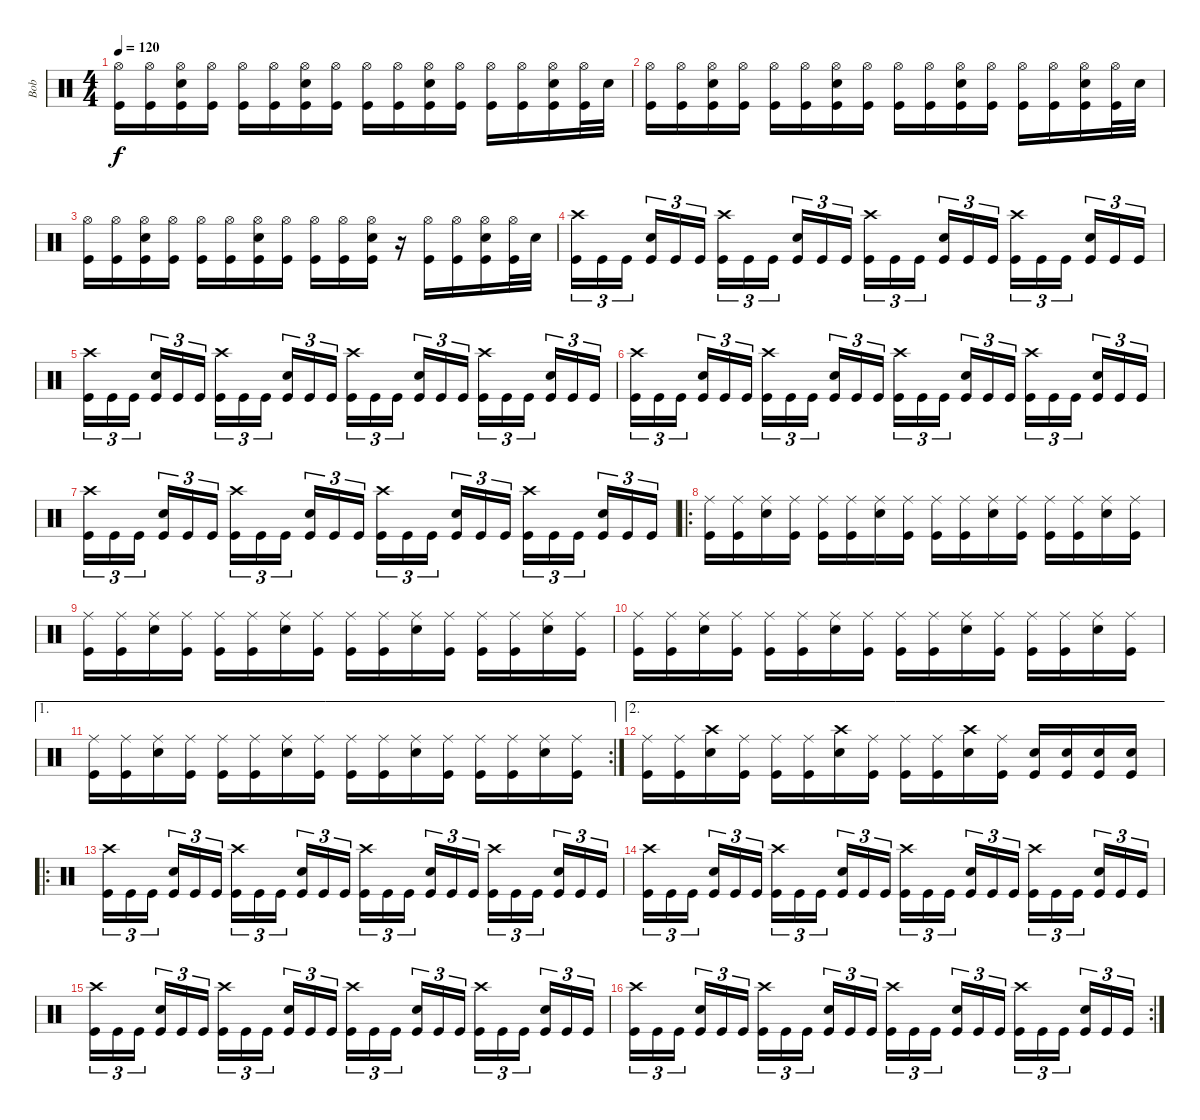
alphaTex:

\track ("Bob" "Bob") {instrument percussion}
\staff {score}
\articulation defaults
\ts (4 4)
\tempo 120
\clef neutral
\ks c
("Hi-Hat (open)" "Kick (hit)").16{dy f} ("Hi-Hat (open)" "Kick (hit)").16 ("Hi-Hat (open)" "Snare (hit) 2" "Kick (hit)").16 ("Hi-Hat (open)" "Kick (hit)").16 ("Hi-Hat (open)" "Kick (hit)").16 ("Hi-Hat (open)" "Kick (hit)").16 ("Hi-Hat (open)" "Snare (hit) 2" "Kick (hit)").16 ("Hi-Hat (open)" "Kick (hit)").16 ("Hi-Hat (open)" "Kick (hit)").16 ("Hi-Hat (open)" "Kick (hit)").16 ("Hi-Hat (open)" "Snare (hit) 2" "Kick (hit)").16 ("Hi-Hat (open)" "Kick (hit)").16 ("Hi-Hat (open)" "Kick (hit)").16 ("Hi-Hat (open)" "Kick (hit)").16 ("Hi-Hat (open)" "Snare (hit) 2" "Kick (hit)").16 ("Hi-Hat (open)" "Kick (hit)").32 "Snare (hit) 2".32 |
("Hi-Hat (open)" "Kick (hit)").16 ("Hi-Hat (open)" "Kick (hit)").16 ("Hi-Hat (open)" "Snare (hit) 2" "Kick (hit)").16 ("Hi-Hat (open)" "Kick (hit)").16 ("Hi-Hat (open)" "Kick (hit)").16 ("Hi-Hat (open)" "Kick (hit)").16 ("Hi-Hat (open)" "Snare (hit) 2" "Kick (hit)").16 ("Hi-Hat (open)" "Kick (hit)").16 ("Hi-Hat (open)" "Kick (hit)").16 ("Hi-Hat (open)" "Kick (hit)").16 ("Hi-Hat (open)" "Snare (hit) 2" "Kick (hit)").16 ("Hi-Hat (open)" "Kick (hit)").16 ("Hi-Hat (open)" "Kick (hit)").16 ("Hi-Hat (open)" "Kick (hit)").16 ("Hi-Hat (open)" "Snare (hit) 2" "Kick (hit)").16 ("Hi-Hat (open)" "Kick (hit)").32 "Snare (hit) 2".32 |
("Hi-Hat (open)" "Kick (hit)").16 ("Hi-Hat (open)" "Kick (hit)").16 ("Hi-Hat (open)" "Snare (hit) 2" "Kick (hit)").16 ("Hi-Hat (open)" "Kick (hit)").16 ("Hi-Hat (open)" "Kick (hit)").16 ("Hi-Hat (open)" "Kick (hit)").16 ("Hi-Hat (open)" "Snare (hit) 2" "Kick (hit)").16 ("Hi-Hat (open)" "Kick (hit)").16 ("Hi-Hat (open)" "Kick (hit)").16 ("Hi-Hat (open)" "Kick (hit)").16 ("Hi-Hat (open)" "Snare (hit) 2" "Kick (hit)").16 r.16 ("Hi-Hat (open)" "Kick (hit)").16 ("Hi-Hat (open)" "Kick (hit)").16 ("Hi-Hat (open)" "Snare (hit) 2" "Kick (hit)").16 ("Hi-Hat (open)" "Kick (hit)").32 "Snare (hit) 2".32 |
("Crash high (hit)" "Kick (hit)").16{tu (3 2)} "Kick (hit)".16{tu (3 2)} "Kick (hit)".16{tu (3 2)} ("Snare (hit) 2" "Kick (hit)").16{tu (3 2)} "Kick (hit)".16{tu (3 2)} "Kick (hit)".16{tu (3 2)} ("Crash high (hit)" "Kick (hit)").16{tu (3 2)} "Kick (hit)".16{tu (3 2)} "Kick (hit)".16{tu (3 2)} ("Snare (hit) 2" "Kick (hit)").16{tu (3 2)} "Kick (hit)".16{tu (3 2)} "Kick (hit)".16{tu (3 2)} ("Crash high (hit)" "Kick (hit)").16{tu (3 2)} "Kick (hit)".16{tu (3 2)} "Kick (hit)".16{tu (3 2)} ("Snare (hit) 2" "Kick (hit)").16{tu (3 2)} "Kick (hit)".16{tu (3 2)} "Kick (hit)".16{tu (3 2)} ("Crash high (hit)" "Kick (hit)").16{tu (3 2)} "Kick (hit)".16{tu (3 2)} "Kick (hit)".16{tu (3 2)} ("Snare (hit) 2" "Kick (hit)").16{tu (3 2)} "Kick (hit)".16{tu (3 2)} "Kick (hit)".16{tu (3 2)} |
("Crash high (hit)" "Kick (hit)").16{tu (3 2)} "Kick (hit)".16{tu (3 2)} "Kick (hit)".16{tu (3 2)} ("Snare (hit) 2" "Kick (hit)").16{tu (3 2)} "Kick (hit)".16{tu (3 2)} "Kick (hit)".16{tu (3 2)} ("Crash high (hit)" "Kick (hit)").16{tu (3 2)} "Kick (hit)".16{tu (3 2)} "Kick (hit)".16{tu (3 2)} ("Snare (hit) 2" "Kick (hit)").16{tu (3 2)} "Kick (hit)".16{tu (3 2)} "Kick (hit)".16{tu (3 2)} ("Crash high (hit)" "Kick (hit)").16{tu (3 2)} "Kick (hit)".16{tu (3 2)} "Kick (hit)".16{tu (3 2)} ("Snare (hit) 2" "Kick (hit)").16{tu (3 2)} "Kick (hit)".16{tu (3 2)} "Kick (hit)".16{tu (3 2)} ("Crash high (hit)" "Kick (hit)").16{tu (3 2)} "Kick (hit)".16{tu (3 2)} "Kick (hit)".16{tu (3 2)} ("Snare (hit) 2" "Kick (hit)").16{tu (3 2)} "Kick (hit)".16{tu (3 2)} "Kick (hit)".16{tu (3 2)} |
("Crash high (hit)" "Kick (hit)").16{tu (3 2)} "Kick (hit)".16{tu (3 2)} "Kick (hit)".16{tu (3 2)} ("Snare (hit) 2" "Kick (hit)").16{tu (3 2)} "Kick (hit)".16{tu (3 2)} "Kick (hit)".16{tu (3 2)} ("Crash high (hit)" "Kick (hit)").16{tu (3 2)} "Kick (hit)".16{tu (3 2)} "Kick (hit)".16{tu (3 2)} ("Snare (hit) 2" "Kick (hit)").16{tu (3 2)} "Kick (hit)".16{tu (3 2)} "Kick (hit)".16{tu (3 2)} ("Crash high (hit)" "Kick (hit)").16{tu (3 2)} "Kick (hit)".16{tu (3 2)} "Kick (hit)".16{tu (3 2)} ("Snare (hit) 2" "Kick (hit)").16{tu (3 2)} "Kick (hit)".16{tu (3 2)} "Kick (hit)".16{tu (3 2)} ("Crash high (hit)" "Kick (hit)").16{tu (3 2)} "Kick (hit)".16{tu (3 2)} "Kick (hit)".16{tu (3 2)} ("Snare (hit) 2" "Kick (hit)").16{tu (3 2)} "Kick (hit)".16{tu (3 2)} "Kick (hit)".16{tu (3 2)} |
("Crash high (hit)" "Kick (hit)").16{tu (3 2)} "Kick (hit)".16{tu (3 2)} "Kick (hit)".16{tu (3 2)} ("Snare (hit) 2" "Kick (hit)").16{tu (3 2)} "Kick (hit)".16{tu (3 2)} "Kick (hit)".16{tu (3 2)} ("Crash high (hit)" "Kick (hit)").16{tu (3 2)} "Kick (hit)".16{tu (3 2)} "Kick (hit)".16{tu (3 2)} ("Snare (hit) 2" "Kick (hit)").16{tu (3 2)} "Kick (hit)".16{tu (3 2)} "Kick (hit)".16{tu (3 2)} ("Crash high (hit)" "Kick (hit)").16{tu (3 2)} "Kick (hit)".16{tu (3 2)} "Kick (hit)".16{tu (3 2)} ("Snare (hit) 2" "Kick (hit)").16{tu (3 2)} "Kick (hit)".16{tu (3 2)} "Kick (hit)".16{tu (3 2)} ("Crash high (hit)" "Kick (hit)").16{tu (3 2)} "Kick (hit)".16{tu (3 2)} "Kick (hit)".16{tu (3 2)} ("Snare (hit) 2" "Kick (hit)").16{tu (3 2)} "Kick (hit)".16{tu (3 2)} "Kick (hit)".16{tu (3 2)} |
\ro
("Ride (middle)" "Kick (hit)").16 ("Ride (middle)" "Kick (hit)").16 ("Ride (middle)" "Snare (hit) 2").16 ("Ride (middle)" "Kick (hit)").16 ("Ride (middle)" "Kick (hit)").16 ("Ride (middle)" "Kick (hit)").16 ("Ride (middle)" "Snare (hit) 2").16 ("Ride (middle)" "Kick (hit)").16 ("Ride (middle)" "Kick (hit)").16 ("Ride (middle)" "Kick (hit)").16 ("Ride (middle)" "Snare (hit) 2").16 ("Ride (middle)" "Kick (hit)").16 ("Ride (middle)" "Kick (hit)").16 ("Ride (middle)" "Kick (hit)").16 ("Ride (middle)" "Snare (hit) 2").16 ("Ride (middle)" "Kick (hit)").16 |
("Ride (middle)" "Kick (hit)").16 ("Ride (middle)" "Kick (hit)").16 ("Ride (middle)" "Snare (hit) 2").16 ("Ride (middle)" "Kick (hit)").16 ("Ride (middle)" "Kick (hit)").16 ("Ride (middle)" "Kick (hit)").16 ("Ride (middle)" "Snare (hit) 2").16 ("Ride (middle)" "Kick (hit)").16 ("Ride (middle)" "Kick (hit)").16 ("Ride (middle)" "Kick (hit)").16 ("Ride (middle)" "Snare (hit) 2").16 ("Ride (middle)" "Kick (hit)").16 ("Ride (middle)" "Kick (hit)").16 ("Ride (middle)" "Kick (hit)").16 ("Ride (middle)" "Snare (hit) 2").16 ("Ride (middle)" "Kick (hit)").16 |
("Ride (middle)" "Kick (hit)").16 ("Ride (middle)" "Kick (hit)").16 ("Ride (middle)" "Snare (hit) 2").16 ("Ride (middle)" "Kick (hit)").16 ("Ride (middle)" "Kick (hit)").16 ("Ride (middle)" "Kick (hit)").16 ("Ride (middle)" "Snare (hit) 2").16 ("Ride (middle)" "Kick (hit)").16 ("Ride (middle)" "Kick (hit)").16 ("Ride (middle)" "Kick (hit)").16 ("Ride (middle)" "Snare (hit) 2").16 ("Ride (middle)" "Kick (hit)").16 ("Ride (middle)" "Kick (hit)").16 ("Ride (middle)" "Kick (hit)").16 ("Ride (middle)" "Snare (hit) 2").16 ("Ride (middle)" "Kick (hit)").16 |
\ae 1
\rc 2
("Ride (middle)" "Kick (hit)").16 ("Ride (middle)" "Kick (hit)").16 ("Ride (middle)" "Snare (hit) 2").16 ("Ride (middle)" "Kick (hit)").16 ("Ride (middle)" "Kick (hit)").16 ("Ride (middle)" "Kick (hit)").16 ("Ride (middle)" "Snare (hit) 2").16 ("Ride (middle)" "Kick (hit)").16 ("Ride (middle)" "Kick (hit)").16 ("Ride (middle)" "Kick (hit)").16 ("Ride (middle)" "Snare (hit) 2").16 ("Ride (middle)" "Kick (hit)").16 ("Ride (middle)" "Kick (hit)").16 ("Ride (middle)" "Kick (hit)").16 ("Ride (middle)" "Snare (hit) 2").16 ("Ride (middle)" "Kick (hit)").16 |
\ae 2
("Ride (middle)" "Kick (hit)").16 ("Ride (middle)" "Kick (hit)").16 ("Crash high (hit)" "Snare (hit) 2").16 ("Ride (middle)" "Kick (hit)").16 ("Ride (middle)" "Kick (hit)").16 ("Ride (middle)" "Kick (hit)").16 ("Crash high (hit)" "Snare (hit) 2").16 ("Ride (middle)" "Kick (hit)").16 ("Ride (middle)" "Kick (hit)").16 ("Ride (middle)" "Kick (hit)").16 ("Crash high (hit)" "Snare (hit) 2").16 ("Ride (middle)" "Kick (hit)").16 ("Snare (hit) 2" "Kick (hit)").16 ("Snare (hit) 2" "Kick (hit)").16 ("Snare (hit) 2" "Kick (hit)").16 ("Snare (hit) 2" "Kick (hit)").16 |
\ro
("Crash high (hit)" "Kick (hit)").16{tu (3 2)} "Kick (hit)".16{tu (3 2)} "Kick (hit)".16{tu (3 2)} ("Snare (hit) 2" "Kick (hit)").16{tu (3 2)} "Kick (hit)".16{tu (3 2)} "Kick (hit)".16{tu (3 2)} ("Crash high (hit)" "Kick (hit)").16{tu (3 2)} "Kick (hit)".16{tu (3 2)} "Kick (hit)".16{tu (3 2)} ("Snare (hit) 2" "Kick (hit)").16{tu (3 2)} "Kick (hit)".16{tu (3 2)} "Kick (hit)".16{tu (3 2)} ("Crash high (hit)" "Kick (hit)").16{tu (3 2)} "Kick (hit)".16{tu (3 2)} "Kick (hit)".16{tu (3 2)} ("Snare (hit) 2" "Kick (hit)").16{tu (3 2)} "Kick (hit)".16{tu (3 2)} "Kick (hit)".16{tu (3 2)} ("Crash high (hit)" "Kick (hit)").16{tu (3 2)} "Kick (hit)".16{tu (3 2)} "Kick (hit)".16{tu (3 2)} ("Snare (hit) 2" "Kick (hit)").16{tu (3 2)} "Kick (hit)".16{tu (3 2)} "Kick (hit)".16{tu (3 2)} |
("Crash high (hit)" "Kick (hit)").16{tu (3 2)} "Kick (hit)".16{tu (3 2)} "Kick (hit)".16{tu (3 2)} ("Snare (hit) 2" "Kick (hit)").16{tu (3 2)} "Kick (hit)".16{tu (3 2)} "Kick (hit)".16{tu (3 2)} ("Crash high (hit)" "Kick (hit)").16{tu (3 2)} "Kick (hit)".16{tu (3 2)} "Kick (hit)".16{tu (3 2)} ("Snare (hit) 2" "Kick (hit)").16{tu (3 2)} "Kick (hit)".16{tu (3 2)} "Kick (hit)".16{tu (3 2)} ("Crash high (hit)" "Kick (hit)").16{tu (3 2)} "Kick (hit)".16{tu (3 2)} "Kick (hit)".16{tu (3 2)} ("Snare (hit) 2" "Kick (hit)").16{tu (3 2)} "Kick (hit)".16{tu (3 2)} "Kick (hit)".16{tu (3 2)} ("Crash high (hit)" "Kick (hit)").16{tu (3 2)} "Kick (hit)".16{tu (3 2)} "Kick (hit)".16{tu (3 2)} ("Snare (hit) 2" "Kick (hit)").16{tu (3 2)} "Kick (hit)".16{tu (3 2)} "Kick (hit)".16{tu (3 2)} |
("Crash high (hit)" "Kick (hit)").16{tu (3 2)} "Kick (hit)".16{tu (3 2)} "Kick (hit)".16{tu (3 2)} ("Snare (hit) 2" "Kick (hit)").16{tu (3 2)} "Kick (hit)".16{tu (3 2)} "Kick (hit)".16{tu (3 2)} ("Crash high (hit)" "Kick (hit)").16{tu (3 2)} "Kick (hit)".16{tu (3 2)} "Kick (hit)".16{tu (3 2)} ("Snare (hit) 2" "Kick (hit)").16{tu (3 2)} "Kick (hit)".16{tu (3 2)} "Kick (hit)".16{tu (3 2)} ("Crash high (hit)" "Kick (hit)").16{tu (3 2)} "Kick (hit)".16{tu (3 2)} "Kick (hit)".16{tu (3 2)} ("Snare (hit) 2" "Kick (hit)").16{tu (3 2)} "Kick (hit)".16{tu (3 2)} "Kick (hit)".16{tu (3 2)} ("Crash high (hit)" "Kick (hit)").16{tu (3 2)} "Kick (hit)".16{tu (3 2)} "Kick (hit)".16{tu (3 2)} ("Snare (hit) 2" "Kick (hit)").16{tu (3 2)} "Kick (hit)".16{tu (3 2)} "Kick (hit)".16{tu (3 2)} |
\rc 2
("Crash high (hit)" "Kick (hit)").16{tu (3 2)} "Kick (hit)".16{tu (3 2)} "Kick (hit)".16{tu (3 2)} ("Snare (hit) 2" "Kick (hit)").16{tu (3 2)} "Kick (hit)".16{tu (3 2)} "Kick (hit)".16{tu (3 2)} ("Crash high (hit)" "Kick (hit)").16{tu (3 2)} "Kick (hit)".16{tu (3 2)} "Kick (hit)".16{tu (3 2)} ("Snare (hit) 2" "Kick (hit)").16{tu (3 2)} "Kick (hit)".16{tu (3 2)} "Kick (hit)".16{tu (3 2)} ("Crash high (hit)" "Kick (hit)").16{tu (3 2)} "Kick (hit)".16{tu (3 2)} "Kick (hit)".16{tu (3 2)} ("Snare (hit) 2" "Kick (hit)").16{tu (3 2)} "Kick (hit)".16{tu (3 2)} "Kick (hit)".16{tu (3 2)} ("Crash high (hit)" "Kick (hit)").16{tu (3 2)} "Kick (hit)".16{tu (3 2)} "Kick (hit)".16{tu (3 2)} ("Snare (hit) 2" "Kick (hit)").16{tu (3 2)} "Kick (hit)".16{tu (3 2)} "Kick (hit)".16{tu (3 2)}
